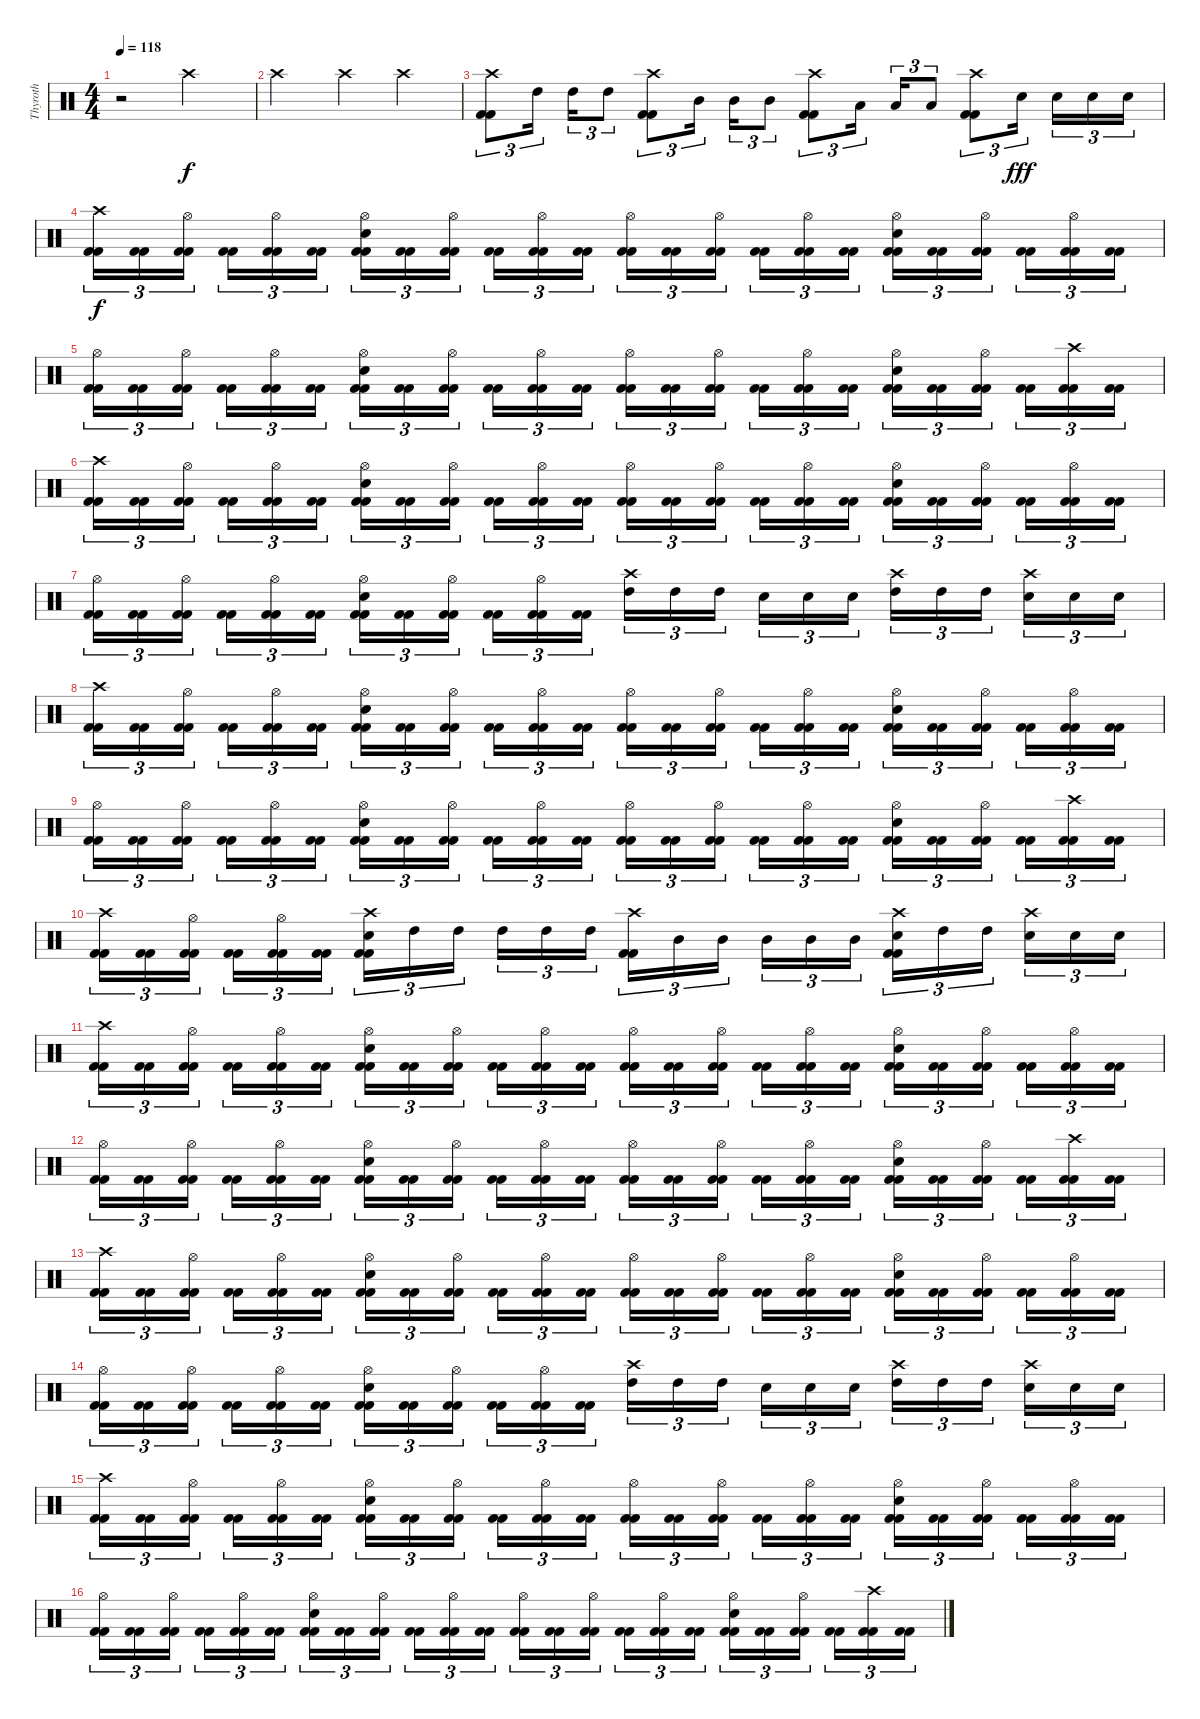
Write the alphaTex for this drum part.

\track ("Thyroth" "Thyroth") {instrument percussion}
\staff {score}
\articulation defaults
\ts (4 4)
\tempo 118
\clef neutral
\ks c
r.2{dy f} "Crash high (hit)".2 |
"Crash high (hit)".2 "Crash high (hit)".4 "Crash high (hit)".4 |
("Kick (hit) 2" "Kick (hit) 2" "Crash high (hit)").8{tu (3 2)} "High Tom (hit)".16{tu (3 2)} "High Tom (hit)".16{tu (3 2)} "High Tom (hit)".8{tu (3 2)} ("Kick (hit) 2" "Kick (hit) 2" "Crash high (hit)").8{tu (3 2)} "Mid Tom (hit)".16{tu (3 2)} "Mid Tom (hit)".16{tu (3 2)} "Mid Tom (hit)".8{tu (3 2)} ("Kick (hit) 2" "Kick (hit) 2" "Crash high (hit)").8{tu (3 2)} "Low Tom (hit)".16{tu (3 2)} "Low Tom (hit)".16{tu (3 2)} "Low Tom (hit)".8{tu (3 2)} ("Kick (hit) 2" "Kick (hit) 2" "Crash high (hit)").8{tu (3 2)} "Snare (hit) 2".16{tu (3 2) dy fff} "Snare (hit) 2".16{tu (3 2)} "Snare (hit) 2".16{tu (3 2)} "Snare (hit) 2".16{tu (3 2)} |
("Kick (hit) 2" "Kick (hit) 2" "Crash high (hit)").16{tu (3 2) dy f} ("Kick (hit) 2" "Kick (hit) 2").16{tu (3 2)} ("Kick (hit) 2" "Kick (hit) 2" "Hi-Hat (open)").16{tu (3 2)} ("Kick (hit) 2" "Kick (hit) 2").16{tu (3 2)} ("Kick (hit) 2" "Kick (hit) 2" "Hi-Hat (open)").16{tu (3 2)} ("Kick (hit) 2" "Kick (hit) 2").16{tu (3 2)} ("Kick (hit) 2" "Kick (hit) 2" "Snare (hit) 2" "Hi-Hat (open)").16{tu (3 2)} ("Kick (hit) 2" "Kick (hit) 2").16{tu (3 2)} ("Kick (hit) 2" "Kick (hit) 2" "Hi-Hat (open)").16{tu (3 2)} ("Kick (hit) 2" "Kick (hit) 2").16{tu (3 2)} ("Kick (hit) 2" "Kick (hit) 2" "Hi-Hat (open)").16{tu (3 2)} ("Kick (hit) 2" "Kick (hit) 2").16{tu (3 2)} ("Kick (hit) 2" "Kick (hit) 2" "Hi-Hat (open)").16{tu (3 2)} ("Kick (hit) 2" "Kick (hit) 2").16{tu (3 2)} ("Kick (hit) 2" "Kick (hit) 2" "Hi-Hat (open)").16{tu (3 2)} ("Kick (hit) 2" "Kick (hit) 2").16{tu (3 2)} ("Kick (hit) 2" "Kick (hit) 2" "Hi-Hat (open)").16{tu (3 2)} ("Kick (hit) 2" "Kick (hit) 2").16{tu (3 2)} ("Kick (hit) 2" "Kick (hit) 2" "Snare (hit) 2" "Hi-Hat (open)").16{tu (3 2)} ("Kick (hit) 2" "Kick (hit) 2").16{tu (3 2)} ("Kick (hit) 2" "Kick (hit) 2" "Hi-Hat (open)").16{tu (3 2)} ("Kick (hit) 2" "Kick (hit) 2").16{tu (3 2)} ("Kick (hit) 2" "Kick (hit) 2" "Hi-Hat (open)").16{tu (3 2)} ("Kick (hit) 2" "Kick (hit) 2").16{tu (3 2)} |
("Kick (hit) 2" "Kick (hit) 2" "Hi-Hat (open)").16{tu (3 2)} ("Kick (hit) 2" "Kick (hit) 2").16{tu (3 2)} ("Kick (hit) 2" "Kick (hit) 2" "Hi-Hat (open)").16{tu (3 2)} ("Kick (hit) 2" "Kick (hit) 2").16{tu (3 2)} ("Kick (hit) 2" "Kick (hit) 2" "Hi-Hat (open)").16{tu (3 2)} ("Kick (hit) 2" "Kick (hit) 2").16{tu (3 2)} ("Kick (hit) 2" "Kick (hit) 2" "Snare (hit) 2" "Hi-Hat (open)").16{tu (3 2)} ("Kick (hit) 2" "Kick (hit) 2").16{tu (3 2)} ("Kick (hit) 2" "Kick (hit) 2" "Hi-Hat (open)").16{tu (3 2)} ("Kick (hit) 2" "Kick (hit) 2").16{tu (3 2)} ("Kick (hit) 2" "Kick (hit) 2" "Hi-Hat (open)").16{tu (3 2)} ("Kick (hit) 2" "Kick (hit) 2").16{tu (3 2)} ("Kick (hit) 2" "Kick (hit) 2" "Hi-Hat (open)").16{tu (3 2)} ("Kick (hit) 2" "Kick (hit) 2").16{tu (3 2)} ("Kick (hit) 2" "Kick (hit) 2" "Hi-Hat (open)").16{tu (3 2)} ("Kick (hit) 2" "Kick (hit) 2").16{tu (3 2)} ("Kick (hit) 2" "Kick (hit) 2" "Hi-Hat (open)").16{tu (3 2)} ("Kick (hit) 2" "Kick (hit) 2").16{tu (3 2)} ("Kick (hit) 2" "Kick (hit) 2" "Snare (hit) 2" "Hi-Hat (open)").16{tu (3 2)} ("Kick (hit) 2" "Kick (hit) 2").16{tu (3 2)} ("Kick (hit) 2" "Kick (hit) 2" "Hi-Hat (open)").16{tu (3 2)} ("Kick (hit) 2" "Kick (hit) 2").16{tu (3 2)} ("Kick (hit) 2" "Kick (hit) 2" "Crash high (hit)").16{tu (3 2)} ("Kick (hit) 2" "Kick (hit) 2").16{tu (3 2)} |
("Kick (hit) 2" "Kick (hit) 2" "Crash high (hit)").16{tu (3 2)} ("Kick (hit) 2" "Kick (hit) 2").16{tu (3 2)} ("Kick (hit) 2" "Kick (hit) 2" "Hi-Hat (open)").16{tu (3 2)} ("Kick (hit) 2" "Kick (hit) 2").16{tu (3 2)} ("Kick (hit) 2" "Kick (hit) 2" "Hi-Hat (open)").16{tu (3 2)} ("Kick (hit) 2" "Kick (hit) 2").16{tu (3 2)} ("Kick (hit) 2" "Kick (hit) 2" "Snare (hit) 2" "Hi-Hat (open)").16{tu (3 2)} ("Kick (hit) 2" "Kick (hit) 2").16{tu (3 2)} ("Kick (hit) 2" "Kick (hit) 2" "Hi-Hat (open)").16{tu (3 2)} ("Kick (hit) 2" "Kick (hit) 2").16{tu (3 2)} ("Kick (hit) 2" "Kick (hit) 2" "Hi-Hat (open)").16{tu (3 2)} ("Kick (hit) 2" "Kick (hit) 2").16{tu (3 2)} ("Kick (hit) 2" "Kick (hit) 2" "Hi-Hat (open)").16{tu (3 2)} ("Kick (hit) 2" "Kick (hit) 2").16{tu (3 2)} ("Kick (hit) 2" "Kick (hit) 2" "Hi-Hat (open)").16{tu (3 2)} ("Kick (hit) 2" "Kick (hit) 2").16{tu (3 2)} ("Kick (hit) 2" "Kick (hit) 2" "Hi-Hat (open)").16{tu (3 2)} ("Kick (hit) 2" "Kick (hit) 2").16{tu (3 2)} ("Kick (hit) 2" "Kick (hit) 2" "Snare (hit) 2" "Hi-Hat (open)").16{tu (3 2)} ("Kick (hit) 2" "Kick (hit) 2").16{tu (3 2)} ("Kick (hit) 2" "Kick (hit) 2" "Hi-Hat (open)").16{tu (3 2)} ("Kick (hit) 2" "Kick (hit) 2").16{tu (3 2)} ("Kick (hit) 2" "Kick (hit) 2" "Hi-Hat (open)").16{tu (3 2)} ("Kick (hit) 2" "Kick (hit) 2").16{tu (3 2)} |
("Kick (hit) 2" "Kick (hit) 2" "Hi-Hat (open)").16{tu (3 2)} ("Kick (hit) 2" "Kick (hit) 2").16{tu (3 2)} ("Kick (hit) 2" "Kick (hit) 2" "Hi-Hat (open)").16{tu (3 2)} ("Kick (hit) 2" "Kick (hit) 2").16{tu (3 2)} ("Kick (hit) 2" "Kick (hit) 2" "Hi-Hat (open)").16{tu (3 2)} ("Kick (hit) 2" "Kick (hit) 2").16{tu (3 2)} ("Kick (hit) 2" "Kick (hit) 2" "Snare (hit) 2" "Hi-Hat (open)").16{tu (3 2)} ("Kick (hit) 2" "Kick (hit) 2").16{tu (3 2)} ("Kick (hit) 2" "Kick (hit) 2" "Hi-Hat (open)").16{tu (3 2)} ("Kick (hit) 2" "Kick (hit) 2").16{tu (3 2)} ("Kick (hit) 2" "Kick (hit) 2" "Hi-Hat (open)").16{tu (3 2)} ("Kick (hit) 2" "Kick (hit) 2").16{tu (3 2)} ("High Tom (hit)" "Crash high (hit)").16{tu (3 2)} "High Tom (hit)".16{tu (3 2)} "High Tom (hit)".16{tu (3 2)} "Snare (hit) 2".16{tu (3 2)} "Snare (hit) 2".16{tu (3 2)} "Snare (hit) 2".16{tu (3 2)} ("High Tom (hit)" "Crash high (hit)").16{tu (3 2)} "High Tom (hit)".16{tu (3 2)} "High Tom (hit)".16{tu (3 2)} ("Snare (hit) 2" "Crash high (hit)").16{tu (3 2)} "Snare (hit) 2".16{tu (3 2)} "Snare (hit) 2".16{tu (3 2)} |
("Kick (hit) 2" "Kick (hit) 2" "Crash high (hit)").16{tu (3 2)} ("Kick (hit) 2" "Kick (hit) 2").16{tu (3 2)} ("Kick (hit) 2" "Kick (hit) 2" "Hi-Hat (open)").16{tu (3 2)} ("Kick (hit) 2" "Kick (hit) 2").16{tu (3 2)} ("Kick (hit) 2" "Kick (hit) 2" "Hi-Hat (open)").16{tu (3 2)} ("Kick (hit) 2" "Kick (hit) 2").16{tu (3 2)} ("Kick (hit) 2" "Kick (hit) 2" "Snare (hit) 2" "Hi-Hat (open)").16{tu (3 2)} ("Kick (hit) 2" "Kick (hit) 2").16{tu (3 2)} ("Kick (hit) 2" "Kick (hit) 2" "Hi-Hat (open)").16{tu (3 2)} ("Kick (hit) 2" "Kick (hit) 2").16{tu (3 2)} ("Kick (hit) 2" "Kick (hit) 2" "Hi-Hat (open)").16{tu (3 2)} ("Kick (hit) 2" "Kick (hit) 2").16{tu (3 2)} ("Kick (hit) 2" "Kick (hit) 2" "Hi-Hat (open)").16{tu (3 2)} ("Kick (hit) 2" "Kick (hit) 2").16{tu (3 2)} ("Kick (hit) 2" "Kick (hit) 2" "Hi-Hat (open)").16{tu (3 2)} ("Kick (hit) 2" "Kick (hit) 2").16{tu (3 2)} ("Kick (hit) 2" "Kick (hit) 2" "Hi-Hat (open)").16{tu (3 2)} ("Kick (hit) 2" "Kick (hit) 2").16{tu (3 2)} ("Kick (hit) 2" "Kick (hit) 2" "Snare (hit) 2" "Hi-Hat (open)").16{tu (3 2)} ("Kick (hit) 2" "Kick (hit) 2").16{tu (3 2)} ("Kick (hit) 2" "Kick (hit) 2" "Hi-Hat (open)").16{tu (3 2)} ("Kick (hit) 2" "Kick (hit) 2").16{tu (3 2)} ("Kick (hit) 2" "Kick (hit) 2" "Hi-Hat (open)").16{tu (3 2)} ("Kick (hit) 2" "Kick (hit) 2").16{tu (3 2)} |
("Kick (hit) 2" "Kick (hit) 2" "Hi-Hat (open)").16{tu (3 2)} ("Kick (hit) 2" "Kick (hit) 2").16{tu (3 2)} ("Kick (hit) 2" "Kick (hit) 2" "Hi-Hat (open)").16{tu (3 2)} ("Kick (hit) 2" "Kick (hit) 2").16{tu (3 2)} ("Kick (hit) 2" "Kick (hit) 2" "Hi-Hat (open)").16{tu (3 2)} ("Kick (hit) 2" "Kick (hit) 2").16{tu (3 2)} ("Kick (hit) 2" "Kick (hit) 2" "Snare (hit) 2" "Hi-Hat (open)").16{tu (3 2)} ("Kick (hit) 2" "Kick (hit) 2").16{tu (3 2)} ("Kick (hit) 2" "Kick (hit) 2" "Hi-Hat (open)").16{tu (3 2)} ("Kick (hit) 2" "Kick (hit) 2").16{tu (3 2)} ("Kick (hit) 2" "Kick (hit) 2" "Hi-Hat (open)").16{tu (3 2)} ("Kick (hit) 2" "Kick (hit) 2").16{tu (3 2)} ("Kick (hit) 2" "Kick (hit) 2" "Hi-Hat (open)").16{tu (3 2)} ("Kick (hit) 2" "Kick (hit) 2").16{tu (3 2)} ("Kick (hit) 2" "Kick (hit) 2" "Hi-Hat (open)").16{tu (3 2)} ("Kick (hit) 2" "Kick (hit) 2").16{tu (3 2)} ("Kick (hit) 2" "Kick (hit) 2" "Hi-Hat (open)").16{tu (3 2)} ("Kick (hit) 2" "Kick (hit) 2").16{tu (3 2)} ("Kick (hit) 2" "Kick (hit) 2" "Snare (hit) 2" "Hi-Hat (open)").16{tu (3 2)} ("Kick (hit) 2" "Kick (hit) 2").16{tu (3 2)} ("Kick (hit) 2" "Kick (hit) 2" "Hi-Hat (open)").16{tu (3 2)} ("Kick (hit) 2" "Kick (hit) 2").16{tu (3 2)} ("Kick (hit) 2" "Kick (hit) 2" "Crash high (hit)").16{tu (3 2)} ("Kick (hit) 2" "Kick (hit) 2").16{tu (3 2)} |
("Kick (hit) 2" "Kick (hit) 2" "Crash high (hit)").16{tu (3 2)} ("Kick (hit) 2" "Kick (hit) 2").16{tu (3 2)} ("Kick (hit) 2" "Kick (hit) 2" "Hi-Hat (open)").16{tu (3 2)} ("Kick (hit) 2" "Kick (hit) 2").16{tu (3 2)} ("Kick (hit) 2" "Kick (hit) 2" "Hi-Hat (open)").16{tu (3 2)} ("Kick (hit) 2" "Kick (hit) 2").16{tu (3 2)} ("Kick (hit) 2" "Kick (hit) 2" "Snare (hit) 2" "Crash high (hit)").16{tu (3 2)} "High Tom (hit)".16{tu (3 2)} "High Tom (hit)".16{tu (3 2)} "High Tom (hit)".16{tu (3 2)} "High Tom (hit)".16{tu (3 2)} "High Tom (hit)".16{tu (3 2)} ("Kick (hit) 2" "Kick (hit) 2" "Crash high (hit)").16{tu (3 2)} "Mid Tom (hit)".16{tu (3 2)} "Mid Tom (hit)".16{tu (3 2)} "Mid Tom (hit)".16{tu (3 2)} "Mid Tom (hit)".16{tu (3 2)} "Mid Tom (hit)".16{tu (3 2)} ("Kick (hit) 2" "Kick (hit) 2" "Snare (hit) 2" "Crash high (hit)").16{tu (3 2)} "High Tom (hit)".16{tu (3 2)} "High Tom (hit)".16{tu (3 2)} ("Snare (hit) 2" "Crash high (hit)").16{tu (3 2)} "Snare (hit) 2".16{tu (3 2)} "Snare (hit) 2".16{tu (3 2)} |
("Kick (hit) 2" "Kick (hit) 2" "Crash high (hit)").16{tu (3 2)} ("Kick (hit) 2" "Kick (hit) 2").16{tu (3 2)} ("Kick (hit) 2" "Kick (hit) 2" "Hi-Hat (open)").16{tu (3 2)} ("Kick (hit) 2" "Kick (hit) 2").16{tu (3 2)} ("Kick (hit) 2" "Kick (hit) 2" "Hi-Hat (open)").16{tu (3 2)} ("Kick (hit) 2" "Kick (hit) 2").16{tu (3 2)} ("Kick (hit) 2" "Kick (hit) 2" "Snare (hit) 2" "Hi-Hat (open)").16{tu (3 2)} ("Kick (hit) 2" "Kick (hit) 2").16{tu (3 2)} ("Kick (hit) 2" "Kick (hit) 2" "Hi-Hat (open)").16{tu (3 2)} ("Kick (hit) 2" "Kick (hit) 2").16{tu (3 2)} ("Kick (hit) 2" "Kick (hit) 2" "Hi-Hat (open)").16{tu (3 2)} ("Kick (hit) 2" "Kick (hit) 2").16{tu (3 2)} ("Kick (hit) 2" "Kick (hit) 2" "Hi-Hat (open)").16{tu (3 2)} ("Kick (hit) 2" "Kick (hit) 2").16{tu (3 2)} ("Kick (hit) 2" "Kick (hit) 2" "Hi-Hat (open)").16{tu (3 2)} ("Kick (hit) 2" "Kick (hit) 2").16{tu (3 2)} ("Kick (hit) 2" "Kick (hit) 2" "Hi-Hat (open)").16{tu (3 2)} ("Kick (hit) 2" "Kick (hit) 2").16{tu (3 2)} ("Kick (hit) 2" "Kick (hit) 2" "Snare (hit) 2" "Hi-Hat (open)").16{tu (3 2)} ("Kick (hit) 2" "Kick (hit) 2").16{tu (3 2)} ("Kick (hit) 2" "Kick (hit) 2" "Hi-Hat (open)").16{tu (3 2)} ("Kick (hit) 2" "Kick (hit) 2").16{tu (3 2)} ("Kick (hit) 2" "Kick (hit) 2" "Hi-Hat (open)").16{tu (3 2)} ("Kick (hit) 2" "Kick (hit) 2").16{tu (3 2)} |
("Kick (hit) 2" "Kick (hit) 2" "Hi-Hat (open)").16{tu (3 2)} ("Kick (hit) 2" "Kick (hit) 2").16{tu (3 2)} ("Kick (hit) 2" "Kick (hit) 2" "Hi-Hat (open)").16{tu (3 2)} ("Kick (hit) 2" "Kick (hit) 2").16{tu (3 2)} ("Kick (hit) 2" "Kick (hit) 2" "Hi-Hat (open)").16{tu (3 2)} ("Kick (hit) 2" "Kick (hit) 2").16{tu (3 2)} ("Kick (hit) 2" "Kick (hit) 2" "Snare (hit) 2" "Hi-Hat (open)").16{tu (3 2)} ("Kick (hit) 2" "Kick (hit) 2").16{tu (3 2)} ("Kick (hit) 2" "Kick (hit) 2" "Hi-Hat (open)").16{tu (3 2)} ("Kick (hit) 2" "Kick (hit) 2").16{tu (3 2)} ("Kick (hit) 2" "Kick (hit) 2" "Hi-Hat (open)").16{tu (3 2)} ("Kick (hit) 2" "Kick (hit) 2").16{tu (3 2)} ("Kick (hit) 2" "Kick (hit) 2" "Hi-Hat (open)").16{tu (3 2)} ("Kick (hit) 2" "Kick (hit) 2").16{tu (3 2)} ("Kick (hit) 2" "Kick (hit) 2" "Hi-Hat (open)").16{tu (3 2)} ("Kick (hit) 2" "Kick (hit) 2").16{tu (3 2)} ("Kick (hit) 2" "Kick (hit) 2" "Hi-Hat (open)").16{tu (3 2)} ("Kick (hit) 2" "Kick (hit) 2").16{tu (3 2)} ("Kick (hit) 2" "Kick (hit) 2" "Snare (hit) 2" "Hi-Hat (open)").16{tu (3 2)} ("Kick (hit) 2" "Kick (hit) 2").16{tu (3 2)} ("Kick (hit) 2" "Kick (hit) 2" "Hi-Hat (open)").16{tu (3 2)} ("Kick (hit) 2" "Kick (hit) 2").16{tu (3 2)} ("Kick (hit) 2" "Kick (hit) 2" "Crash high (hit)").16{tu (3 2)} ("Kick (hit) 2" "Kick (hit) 2").16{tu (3 2)} |
("Kick (hit) 2" "Kick (hit) 2" "Crash high (hit)").16{tu (3 2)} ("Kick (hit) 2" "Kick (hit) 2").16{tu (3 2)} ("Kick (hit) 2" "Kick (hit) 2" "Hi-Hat (open)").16{tu (3 2)} ("Kick (hit) 2" "Kick (hit) 2").16{tu (3 2)} ("Kick (hit) 2" "Kick (hit) 2" "Hi-Hat (open)").16{tu (3 2)} ("Kick (hit) 2" "Kick (hit) 2").16{tu (3 2)} ("Kick (hit) 2" "Kick (hit) 2" "Snare (hit) 2" "Hi-Hat (open)").16{tu (3 2)} ("Kick (hit) 2" "Kick (hit) 2").16{tu (3 2)} ("Kick (hit) 2" "Kick (hit) 2" "Hi-Hat (open)").16{tu (3 2)} ("Kick (hit) 2" "Kick (hit) 2").16{tu (3 2)} ("Kick (hit) 2" "Kick (hit) 2" "Hi-Hat (open)").16{tu (3 2)} ("Kick (hit) 2" "Kick (hit) 2").16{tu (3 2)} ("Kick (hit) 2" "Kick (hit) 2" "Hi-Hat (open)").16{tu (3 2)} ("Kick (hit) 2" "Kick (hit) 2").16{tu (3 2)} ("Kick (hit) 2" "Kick (hit) 2" "Hi-Hat (open)").16{tu (3 2)} ("Kick (hit) 2" "Kick (hit) 2").16{tu (3 2)} ("Kick (hit) 2" "Kick (hit) 2" "Hi-Hat (open)").16{tu (3 2)} ("Kick (hit) 2" "Kick (hit) 2").16{tu (3 2)} ("Kick (hit) 2" "Kick (hit) 2" "Snare (hit) 2" "Hi-Hat (open)").16{tu (3 2)} ("Kick (hit) 2" "Kick (hit) 2").16{tu (3 2)} ("Kick (hit) 2" "Kick (hit) 2" "Hi-Hat (open)").16{tu (3 2)} ("Kick (hit) 2" "Kick (hit) 2").16{tu (3 2)} ("Kick (hit) 2" "Kick (hit) 2" "Hi-Hat (open)").16{tu (3 2)} ("Kick (hit) 2" "Kick (hit) 2").16{tu (3 2)} |
("Kick (hit) 2" "Kick (hit) 2" "Hi-Hat (open)").16{tu (3 2)} ("Kick (hit) 2" "Kick (hit) 2").16{tu (3 2)} ("Kick (hit) 2" "Kick (hit) 2" "Hi-Hat (open)").16{tu (3 2)} ("Kick (hit) 2" "Kick (hit) 2").16{tu (3 2)} ("Kick (hit) 2" "Kick (hit) 2" "Hi-Hat (open)").16{tu (3 2)} ("Kick (hit) 2" "Kick (hit) 2").16{tu (3 2)} ("Kick (hit) 2" "Kick (hit) 2" "Snare (hit) 2" "Hi-Hat (open)").16{tu (3 2)} ("Kick (hit) 2" "Kick (hit) 2").16{tu (3 2)} ("Kick (hit) 2" "Kick (hit) 2" "Hi-Hat (open)").16{tu (3 2)} ("Kick (hit) 2" "Kick (hit) 2").16{tu (3 2)} ("Kick (hit) 2" "Kick (hit) 2" "Hi-Hat (open)").16{tu (3 2)} ("Kick (hit) 2" "Kick (hit) 2").16{tu (3 2)} ("High Tom (hit)" "Crash high (hit)").16{tu (3 2)} "High Tom (hit)".16{tu (3 2)} "High Tom (hit)".16{tu (3 2)} "Snare (hit) 2".16{tu (3 2)} "Snare (hit) 2".16{tu (3 2)} "Snare (hit) 2".16{tu (3 2)} ("High Tom (hit)" "Crash high (hit)").16{tu (3 2)} "High Tom (hit)".16{tu (3 2)} "High Tom (hit)".16{tu (3 2)} ("Snare (hit) 2" "Crash high (hit)").16{tu (3 2)} "Snare (hit) 2".16{tu (3 2)} "Snare (hit) 2".16{tu (3 2)} |
("Kick (hit) 2" "Kick (hit) 2" "Crash high (hit)").16{tu (3 2)} ("Kick (hit) 2" "Kick (hit) 2").16{tu (3 2)} ("Kick (hit) 2" "Kick (hit) 2" "Hi-Hat (open)").16{tu (3 2)} ("Kick (hit) 2" "Kick (hit) 2").16{tu (3 2)} ("Kick (hit) 2" "Kick (hit) 2" "Hi-Hat (open)").16{tu (3 2)} ("Kick (hit) 2" "Kick (hit) 2").16{tu (3 2)} ("Kick (hit) 2" "Kick (hit) 2" "Snare (hit) 2" "Hi-Hat (open)").16{tu (3 2)} ("Kick (hit) 2" "Kick (hit) 2").16{tu (3 2)} ("Kick (hit) 2" "Kick (hit) 2" "Hi-Hat (open)").16{tu (3 2)} ("Kick (hit) 2" "Kick (hit) 2").16{tu (3 2)} ("Kick (hit) 2" "Kick (hit) 2" "Hi-Hat (open)").16{tu (3 2)} ("Kick (hit) 2" "Kick (hit) 2").16{tu (3 2)} ("Kick (hit) 2" "Kick (hit) 2" "Hi-Hat (open)").16{tu (3 2)} ("Kick (hit) 2" "Kick (hit) 2").16{tu (3 2)} ("Kick (hit) 2" "Kick (hit) 2" "Hi-Hat (open)").16{tu (3 2)} ("Kick (hit) 2" "Kick (hit) 2").16{tu (3 2)} ("Kick (hit) 2" "Kick (hit) 2" "Hi-Hat (open)").16{tu (3 2)} ("Kick (hit) 2" "Kick (hit) 2").16{tu (3 2)} ("Kick (hit) 2" "Kick (hit) 2" "Snare (hit) 2" "Hi-Hat (open)").16{tu (3 2)} ("Kick (hit) 2" "Kick (hit) 2").16{tu (3 2)} ("Kick (hit) 2" "Kick (hit) 2" "Hi-Hat (open)").16{tu (3 2)} ("Kick (hit) 2" "Kick (hit) 2").16{tu (3 2)} ("Kick (hit) 2" "Kick (hit) 2" "Hi-Hat (open)").16{tu (3 2)} ("Kick (hit) 2" "Kick (hit) 2").16{tu (3 2)} |
("Kick (hit) 2" "Kick (hit) 2" "Hi-Hat (open)").16{tu (3 2)} ("Kick (hit) 2" "Kick (hit) 2").16{tu (3 2)} ("Kick (hit) 2" "Kick (hit) 2" "Hi-Hat (open)").16{tu (3 2)} ("Kick (hit) 2" "Kick (hit) 2").16{tu (3 2)} ("Kick (hit) 2" "Kick (hit) 2" "Hi-Hat (open)").16{tu (3 2)} ("Kick (hit) 2" "Kick (hit) 2").16{tu (3 2)} ("Kick (hit) 2" "Kick (hit) 2" "Snare (hit) 2" "Hi-Hat (open)").16{tu (3 2)} ("Kick (hit) 2" "Kick (hit) 2").16{tu (3 2)} ("Kick (hit) 2" "Kick (hit) 2" "Hi-Hat (open)").16{tu (3 2)} ("Kick (hit) 2" "Kick (hit) 2").16{tu (3 2)} ("Kick (hit) 2" "Kick (hit) 2" "Hi-Hat (open)").16{tu (3 2)} ("Kick (hit) 2" "Kick (hit) 2").16{tu (3 2)} ("Kick (hit) 2" "Kick (hit) 2" "Hi-Hat (open)").16{tu (3 2)} ("Kick (hit) 2" "Kick (hit) 2").16{tu (3 2)} ("Kick (hit) 2" "Kick (hit) 2" "Hi-Hat (open)").16{tu (3 2)} ("Kick (hit) 2" "Kick (hit) 2").16{tu (3 2)} ("Kick (hit) 2" "Kick (hit) 2" "Hi-Hat (open)").16{tu (3 2)} ("Kick (hit) 2" "Kick (hit) 2").16{tu (3 2)} ("Kick (hit) 2" "Kick (hit) 2" "Snare (hit) 2" "Hi-Hat (open)").16{tu (3 2)} ("Kick (hit) 2" "Kick (hit) 2").16{tu (3 2)} ("Kick (hit) 2" "Kick (hit) 2" "Hi-Hat (open)").16{tu (3 2)} ("Kick (hit) 2" "Kick (hit) 2").16{tu (3 2)} ("Kick (hit) 2" "Kick (hit) 2" "Crash high (hit)").16{tu (3 2)} ("Kick (hit) 2" "Kick (hit) 2").16{tu (3 2)}
